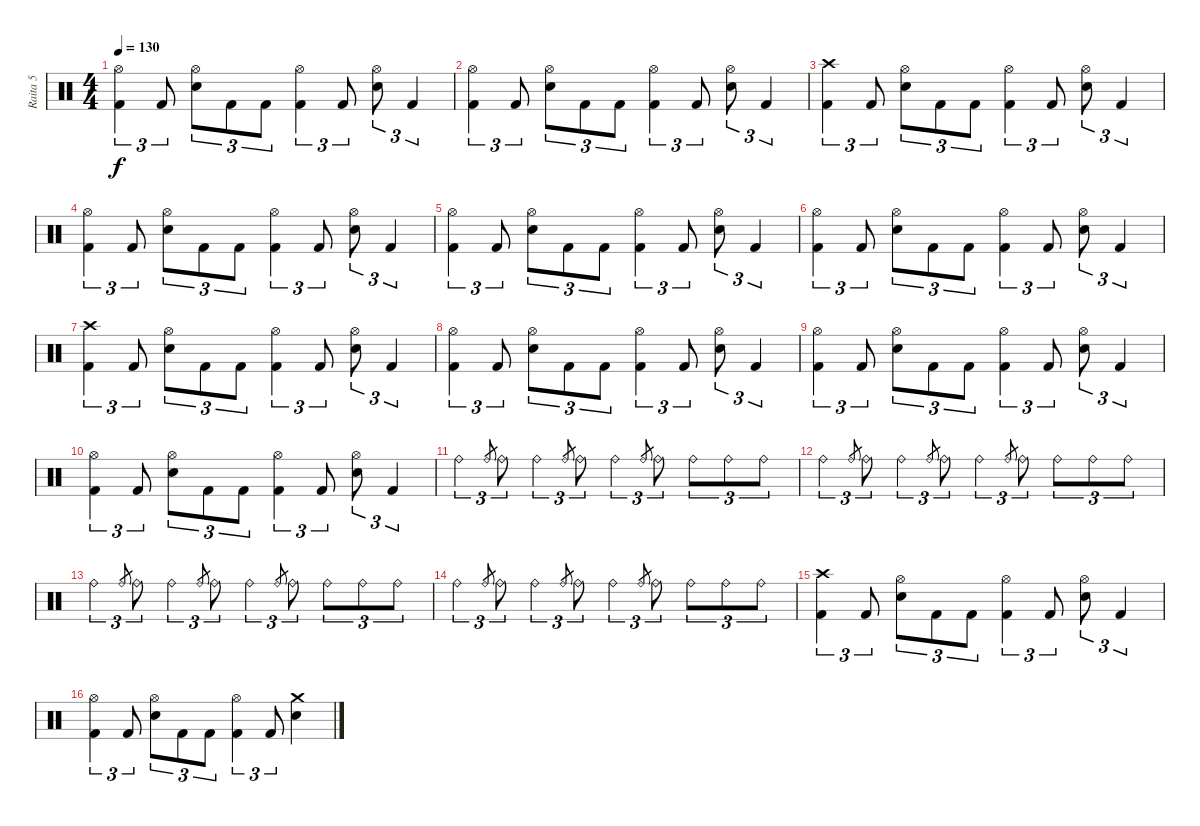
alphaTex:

\track ("Raita 5" "Raita 5") {instrument percussion}
\staff {score}
\articulation defaults
\ts (4 4)
\tempo 130
\clef neutral
\ks c
("Hi-Hat (open)" "Kick (hit) 2").4{tu (3 2) dy f} "Kick (hit) 2".8{tu (3 2)} ("Hi-Hat (open)" "Snare (hit) 2").8{tu (3 2)} "Kick (hit) 2".8{tu (3 2)} "Kick (hit) 2".8{tu (3 2)} ("Hi-Hat (open)" "Kick (hit) 2").4{tu (3 2)} "Kick (hit) 2".8{tu (3 2)} ("Hi-Hat (open)" "Snare (hit) 2").8{tu (3 2)} "Kick (hit) 2".4{tu (3 2)} |
("Hi-Hat (open)" "Kick (hit) 2").4{tu (3 2)} "Kick (hit) 2".8{tu (3 2)} ("Hi-Hat (open)" "Snare (hit) 2").8{tu (3 2)} "Kick (hit) 2".8{tu (3 2)} "Kick (hit) 2".8{tu (3 2)} ("Hi-Hat (open)" "Kick (hit) 2").4{tu (3 2)} "Kick (hit) 2".8{tu (3 2)} ("Hi-Hat (open)" "Snare (hit) 2").8{tu (3 2)} "Kick (hit) 2".4{tu (3 2)} |
("Crash high (hit)" "Kick (hit) 2").4{tu (3 2)} "Kick (hit) 2".8{tu (3 2)} ("Hi-Hat (open)" "Snare (hit) 2").8{tu (3 2)} "Kick (hit) 2".8{tu (3 2)} "Kick (hit) 2".8{tu (3 2)} ("Hi-Hat (open)" "Kick (hit) 2").4{tu (3 2)} "Kick (hit) 2".8{tu (3 2)} ("Hi-Hat (open)" "Snare (hit) 2").8{tu (3 2)} "Kick (hit) 2".4{tu (3 2)} |
("Hi-Hat (open)" "Kick (hit) 2").4{tu (3 2)} "Kick (hit) 2".8{tu (3 2)} ("Hi-Hat (open)" "Snare (hit) 2").8{tu (3 2)} "Kick (hit) 2".8{tu (3 2)} "Kick (hit) 2".8{tu (3 2)} ("Hi-Hat (open)" "Kick (hit) 2").4{tu (3 2)} "Kick (hit) 2".8{tu (3 2)} ("Hi-Hat (open)" "Snare (hit) 2").8{tu (3 2)} "Kick (hit) 2".4{tu (3 2)} |
("Hi-Hat (open)" "Kick (hit) 2").4{tu (3 2)} "Kick (hit) 2".8{tu (3 2)} ("Hi-Hat (open)" "Snare (hit) 2").8{tu (3 2)} "Kick (hit) 2".8{tu (3 2)} "Kick (hit) 2".8{tu (3 2)} ("Hi-Hat (open)" "Kick (hit) 2").4{tu (3 2)} "Kick (hit) 2".8{tu (3 2)} ("Hi-Hat (open)" "Snare (hit) 2").8{tu (3 2)} "Kick (hit) 2".4{tu (3 2)} |
("Hi-Hat (open)" "Kick (hit) 2").4{tu (3 2)} "Kick (hit) 2".8{tu (3 2)} ("Hi-Hat (open)" "Snare (hit) 2").8{tu (3 2)} "Kick (hit) 2".8{tu (3 2)} "Kick (hit) 2".8{tu (3 2)} ("Hi-Hat (open)" "Kick (hit) 2").4{tu (3 2)} "Kick (hit) 2".8{tu (3 2)} ("Hi-Hat (open)" "Snare (hit) 2").8{tu (3 2)} "Kick (hit) 2".4{tu (3 2)} |
("Crash high (hit)" "Kick (hit) 2").4{tu (3 2)} "Kick (hit) 2".8{tu (3 2)} ("Hi-Hat (open)" "Snare (hit) 2").8{tu (3 2)} "Kick (hit) 2".8{tu (3 2)} "Kick (hit) 2".8{tu (3 2)} ("Hi-Hat (open)" "Kick (hit) 2").4{tu (3 2)} "Kick (hit) 2".8{tu (3 2)} ("Hi-Hat (open)" "Snare (hit) 2").8{tu (3 2)} "Kick (hit) 2".4{tu (3 2)} |
("Hi-Hat (open)" "Kick (hit) 2").4{tu (3 2)} "Kick (hit) 2".8{tu (3 2)} ("Hi-Hat (open)" "Snare (hit) 2").8{tu (3 2)} "Kick (hit) 2".8{tu (3 2)} "Kick (hit) 2".8{tu (3 2)} ("Hi-Hat (open)" "Kick (hit) 2").4{tu (3 2)} "Kick (hit) 2".8{tu (3 2)} ("Hi-Hat (open)" "Snare (hit) 2").8{tu (3 2)} "Kick (hit) 2".4{tu (3 2)} |
("Hi-Hat (open)" "Kick (hit) 2").4{tu (3 2)} "Kick (hit) 2".8{tu (3 2)} ("Hi-Hat (open)" "Snare (hit) 2").8{tu (3 2)} "Kick (hit) 2".8{tu (3 2)} "Kick (hit) 2".8{tu (3 2)} ("Hi-Hat (open)" "Kick (hit) 2").4{tu (3 2)} "Kick (hit) 2".8{tu (3 2)} ("Hi-Hat (open)" "Snare (hit) 2").8{tu (3 2)} "Kick (hit) 2".4{tu (3 2)} |
("Hi-Hat (open)" "Kick (hit) 2").4{tu (3 2)} "Kick (hit) 2".8{tu (3 2)} ("Hi-Hat (open)" "Snare (hit) 2").8{tu (3 2)} "Kick (hit) 2".8{tu (3 2)} "Kick (hit) 2".8{tu (3 2)} ("Hi-Hat (open)" "Kick (hit) 2").4{tu (3 2)} "Kick (hit) 2".8{tu (3 2)} ("Hi-Hat (open)" "Snare (hit) 2").8{tu (3 2)} "Kick (hit) 2".4{tu (3 2)} |
"Ride (bell)".4{tu (3 2)} "Ride (bell)".8{gr} "Ride (bell)".8{tu (3 2)} "Ride (bell)".4{tu (3 2)} "Ride (bell)".8{gr} "Ride (bell)".8{tu (3 2)} "Ride (bell)".4{tu (3 2)} "Ride (bell)".8{gr} "Ride (bell)".8{tu (3 2)} "Ride (bell)".8{tu (3 2)} "Ride (bell)".8{tu (3 2)} "Ride (bell)".8{tu (3 2)} |
"Ride (bell)".4{tu (3 2)} "Ride (bell)".8{gr} "Ride (bell)".8{tu (3 2)} "Ride (bell)".4{tu (3 2)} "Ride (bell)".8{gr} "Ride (bell)".8{tu (3 2)} "Ride (bell)".4{tu (3 2)} "Ride (bell)".8{gr} "Ride (bell)".8{tu (3 2)} "Ride (bell)".8{tu (3 2)} "Ride (bell)".8{tu (3 2)} "Ride (bell)".8{tu (3 2)} |
"Ride (bell)".4{tu (3 2)} "Ride (bell)".8{gr} "Ride (bell)".8{tu (3 2)} "Ride (bell)".4{tu (3 2)} "Ride (bell)".8{gr} "Ride (bell)".8{tu (3 2)} "Ride (bell)".4{tu (3 2)} "Ride (bell)".8{gr} "Ride (bell)".8{tu (3 2)} "Ride (bell)".8{tu (3 2)} "Ride (bell)".8{tu (3 2)} "Ride (bell)".8{tu (3 2)} |
"Ride (bell)".4{tu (3 2)} "Ride (bell)".8{gr} "Ride (bell)".8{tu (3 2)} "Ride (bell)".4{tu (3 2)} "Ride (bell)".8{gr} "Ride (bell)".8{tu (3 2)} "Ride (bell)".4{tu (3 2)} "Ride (bell)".8{gr} "Ride (bell)".8{tu (3 2)} "Ride (bell)".8{tu (3 2)} "Ride (bell)".8{tu (3 2)} "Ride (bell)".8{tu (3 2)} |
("Crash high (hit)" "Kick (hit) 2").4{tu (3 2)} "Kick (hit) 2".8{tu (3 2)} ("Hi-Hat (open)" "Snare (hit) 2").8{tu (3 2)} "Kick (hit) 2".8{tu (3 2)} "Kick (hit) 2".8{tu (3 2)} ("Hi-Hat (open)" "Kick (hit) 2").4{tu (3 2)} "Kick (hit) 2".8{tu (3 2)} ("Hi-Hat (open)" "Snare (hit) 2").8{tu (3 2)} "Kick (hit) 2".4{tu (3 2)} |
("Hi-Hat (open)" "Kick (hit) 2").4{tu (3 2)} "Kick (hit) 2".8{tu (3 2)} ("Hi-Hat (open)" "Snare (hit) 2").8{tu (3 2)} "Kick (hit) 2".8{tu (3 2)} "Kick (hit) 2".8{tu (3 2)} ("Hi-Hat (open)" "Kick (hit) 2").4{tu (3 2)} "Kick (hit) 2".8{tu (3 2)} ("Crash medium (hit)" "Snare (hit) 2").4
